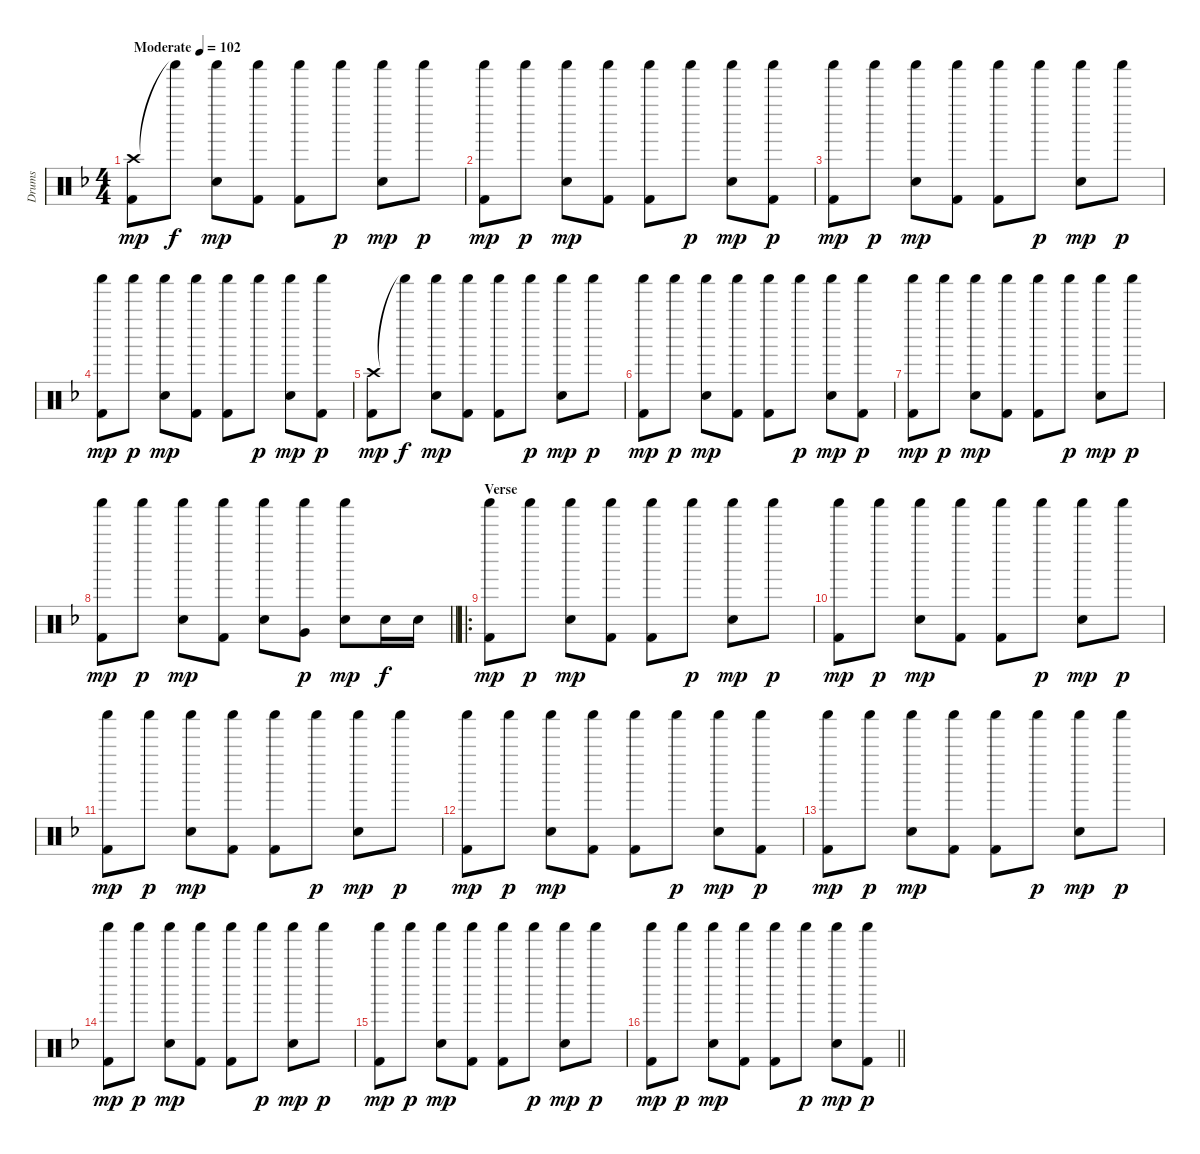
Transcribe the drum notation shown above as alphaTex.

\track ("Drums" "Drums") {instrument percussion}
\staff {score}
\articulation defaults
\ts (4 4)
\tempo (102 "Moderate")
\clef neutral
\ks dminor
("Crash high (hit)" "Kick (hit) 2").8{dy mp} "Shaker (hit)"{t}.8{dy f} ("Shaker (hit)" "Snare (hit) 2").8{dy mp} ("Shaker (hit)" "Kick (hit) 2").8 ("Shaker (hit)" "Kick (hit) 2").8 "Shaker (hit)".8{dy p} ("Shaker (hit)" "Snare (hit) 2").8{dy mp} "Shaker (hit)".8{dy p} |
("Shaker (hit)" "Kick (hit) 2").8{dy mp} "Shaker (hit)".8{dy p} ("Shaker (hit)" "Snare (hit) 2").8{dy mp} ("Shaker (hit)" "Kick (hit) 2").8 ("Shaker (hit)" "Kick (hit) 2").8 "Shaker (hit)".8{dy p} ("Shaker (hit)" "Snare (hit) 2").8{dy mp} ("Shaker (hit)" "Kick (hit) 2").8{dy p} |
("Shaker (hit)" "Kick (hit) 2").8{dy mp} "Shaker (hit)".8{dy p} ("Shaker (hit)" "Snare (hit) 2").8{dy mp} ("Shaker (hit)" "Kick (hit) 2").8 ("Shaker (hit)" "Kick (hit) 2").8 "Shaker (hit)".8{dy p} ("Shaker (hit)" "Snare (hit) 2").8{dy mp} "Shaker (hit)".8{dy p} |
("Shaker (hit)" "Kick (hit) 2").8{dy mp} "Shaker (hit)".8{dy p} ("Shaker (hit)" "Snare (hit) 2").8{dy mp} ("Shaker (hit)" "Kick (hit) 2").8 ("Shaker (hit)" "Kick (hit) 2").8 "Shaker (hit)".8{dy p} ("Shaker (hit)" "Snare (hit) 2").8{dy mp} ("Shaker (hit)" "Kick (hit) 2").8{dy p} |
("Crash high (hit)" "Kick (hit) 2").8{dy mp} "Shaker (hit)"{t}.8{dy f} ("Shaker (hit)" "Snare (hit) 2").8{dy mp} ("Shaker (hit)" "Kick (hit) 2").8 ("Shaker (hit)" "Kick (hit) 2").8 "Shaker (hit)".8{dy p} ("Shaker (hit)" "Snare (hit) 2").8{dy mp} "Shaker (hit)".8{dy p} |
("Shaker (hit)" "Kick (hit) 2").8{dy mp} "Shaker (hit)".8{dy p} ("Shaker (hit)" "Snare (hit) 2").8{dy mp} ("Shaker (hit)" "Kick (hit) 2").8 ("Shaker (hit)" "Kick (hit) 2").8 "Shaker (hit)".8{dy p} ("Shaker (hit)" "Snare (hit) 2").8{dy mp} ("Shaker (hit)" "Kick (hit) 2").8{dy p} |
("Shaker (hit)" "Kick (hit) 2").8{dy mp} "Shaker (hit)".8{dy p} ("Shaker (hit)" "Snare (hit) 2").8{dy mp} ("Shaker (hit)" "Kick (hit) 2").8 ("Shaker (hit)" "Kick (hit) 2").8 "Shaker (hit)".8{dy p} ("Shaker (hit)" "Snare (hit) 2").8{dy mp} "Shaker (hit)".8{dy p} |
\barLineRight lightlight
("Shaker (hit)" "Kick (hit) 2").8{dy mp} "Shaker (hit)".8{dy p} ("Shaker (hit)" "Snare (hit) 2").8{dy mp} ("Shaker (hit)" "Kick (hit) 2").8 ("Shaker (hit)" "Snare (hit) 2").8 ("Shaker (hit)" "Very Low Tom (hit)").8{dy p} ("Shaker (hit)" "Snare (hit) 2").8{dy mp} "Snare (hit) 2".16{dy f} "Snare (hit) 2".16 |
\ro
\section ("" "Verse")
("Shaker (hit)" "Kick (hit) 2").8{dy mp} "Shaker (hit)".8{dy p} ("Shaker (hit)" "Snare (hit) 2").8{dy mp} ("Shaker (hit)" "Kick (hit) 2").8 ("Shaker (hit)" "Kick (hit) 2").8 "Shaker (hit)".8{dy p} ("Shaker (hit)" "Snare (hit) 2").8{dy mp} "Shaker (hit)".8{dy p} |
("Shaker (hit)" "Kick (hit) 2").8{dy mp} "Shaker (hit)".8{dy p} ("Shaker (hit)" "Snare (hit) 2").8{dy mp} ("Shaker (hit)" "Kick (hit) 2").8 ("Shaker (hit)" "Kick (hit) 2").8 "Shaker (hit)".8{dy p} ("Shaker (hit)" "Snare (hit) 2").8{dy mp} "Shaker (hit)".8{dy p} |
("Shaker (hit)" "Kick (hit) 2").8{dy mp} "Shaker (hit)".8{dy p} ("Shaker (hit)" "Snare (hit) 2").8{dy mp} ("Shaker (hit)" "Kick (hit) 2").8 ("Shaker (hit)" "Kick (hit) 2").8 "Shaker (hit)".8{dy p} ("Shaker (hit)" "Snare (hit) 2").8{dy mp} "Shaker (hit)".8{dy p} |
("Shaker (hit)" "Kick (hit) 2").8{dy mp} "Shaker (hit)".8{dy p} ("Shaker (hit)" "Snare (hit) 2").8{dy mp} ("Shaker (hit)" "Kick (hit) 2").8 ("Shaker (hit)" "Kick (hit) 2").8 "Shaker (hit)".8{dy p} ("Shaker (hit)" "Snare (hit) 2").8{dy mp} ("Shaker (hit)" "Kick (hit) 2").8{dy p} |
("Shaker (hit)" "Kick (hit) 2").8{dy mp} "Shaker (hit)".8{dy p} ("Shaker (hit)" "Snare (hit) 2").8{dy mp} ("Shaker (hit)" "Kick (hit) 2").8 ("Shaker (hit)" "Kick (hit) 2").8 "Shaker (hit)".8{dy p} ("Shaker (hit)" "Snare (hit) 2").8{dy mp} "Shaker (hit)".8{dy p} |
("Shaker (hit)" "Kick (hit) 2").8{dy mp} "Shaker (hit)".8{dy p} ("Shaker (hit)" "Snare (hit) 2").8{dy mp} ("Shaker (hit)" "Kick (hit) 2").8 ("Shaker (hit)" "Kick (hit) 2").8 "Shaker (hit)".8{dy p} ("Shaker (hit)" "Snare (hit) 2").8{dy mp} "Shaker (hit)".8{dy p} |
("Shaker (hit)" "Kick (hit) 2").8{dy mp} "Shaker (hit)".8{dy p} ("Shaker (hit)" "Snare (hit) 2").8{dy mp} ("Shaker (hit)" "Kick (hit) 2").8 ("Shaker (hit)" "Kick (hit) 2").8 "Shaker (hit)".8{dy p} ("Shaker (hit)" "Snare (hit) 2").8{dy mp} "Shaker (hit)".8{dy p} |
\barLineRight lightlight
("Shaker (hit)" "Kick (hit) 2").8{dy mp} "Shaker (hit)".8{dy p} ("Shaker (hit)" "Snare (hit) 2").8{dy mp} ("Shaker (hit)" "Kick (hit) 2").8 ("Shaker (hit)" "Kick (hit) 2").8 "Shaker (hit)".8{dy p} ("Shaker (hit)" "Snare (hit) 2").8{dy mp} ("Shaker (hit)" "Kick (hit) 2").8{dy p}
